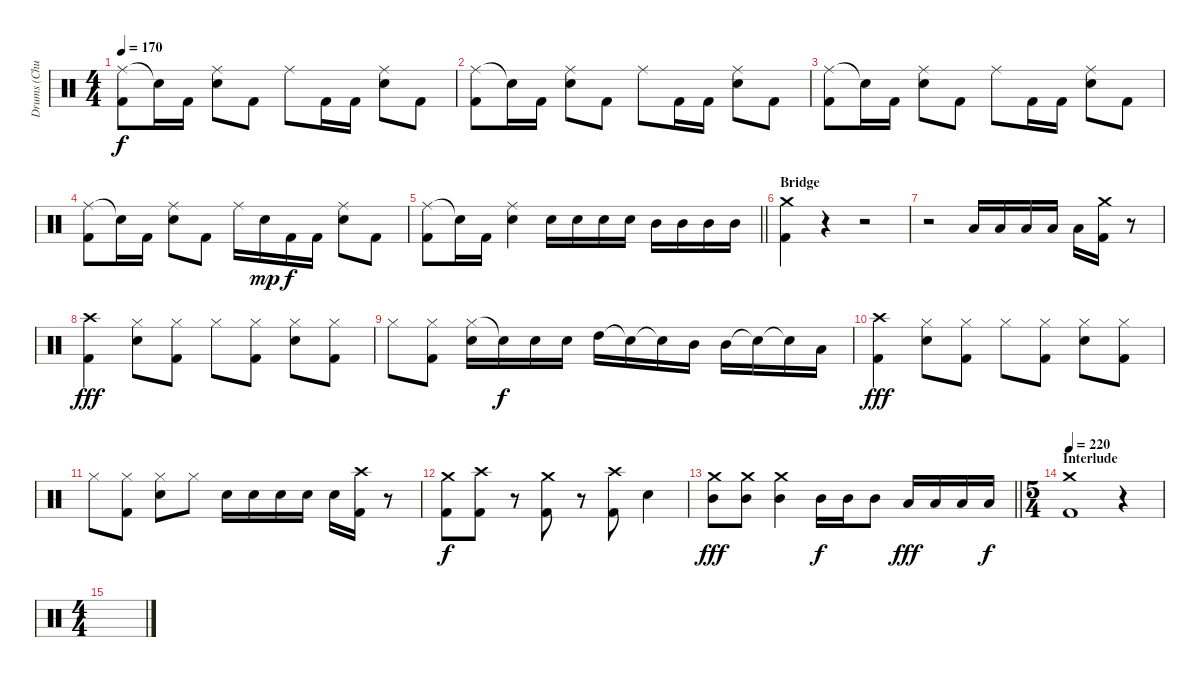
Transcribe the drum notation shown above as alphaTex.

\track ("Drums (Chuck Behler)" "Drums (Chu") {instrument percussion}
\staff {score}
\articulation defaults
\ts (4 4)
\tempo 170
\clef neutral
\ks c
("Ride (middle)" "Kick (hit) 2").8{dy f} "Snare (hit)"{t}.16 "Kick (hit) 2".16 ("Ride (middle)" "Snare (hit) 2").8 "Kick (hit) 2".8 "Ride (middle)".8 "Kick (hit) 2".16 "Kick (hit) 2".16 ("Ride (middle)" "Snare (hit) 2").8 "Kick (hit) 2".8 |
("Ride (middle)" "Kick (hit) 2").8 "Snare (hit)"{t}.16 "Kick (hit) 2".16 ("Ride (middle)" "Snare (hit) 2").8 "Kick (hit) 2".8 "Ride (middle)".8 "Kick (hit) 2".16 "Kick (hit) 2".16 ("Ride (middle)" "Snare (hit) 2").8 "Kick (hit) 2".8 |
("Ride (middle)" "Kick (hit) 2").8 "Snare (hit)"{t}.16 "Kick (hit) 2".16 ("Ride (middle)" "Snare (hit) 2").8 "Kick (hit) 2".8 "Ride (middle)".8 "Kick (hit) 2".16 "Kick (hit) 2".16 ("Ride (middle)" "Snare (hit) 2").8 "Kick (hit) 2".8 |
("Ride (middle)" "Kick (hit) 2").8 "Snare (hit)"{t}.16 "Kick (hit) 2".16 ("Ride (middle)" "Snare (hit) 2").8 "Kick (hit) 2".8 "Ride (middle)".16 "Snare (hit) 2".16{dy mp} "Kick (hit) 2".16{dy f} "Kick (hit) 2".16 ("Ride (middle)" "Snare (hit) 2").8 "Kick (hit) 2".8 |
\barLineRight lightlight
("Ride (middle)" "Kick (hit) 2").8 "Snare (hit)"{t}.16 "Kick (hit) 2".16 ("Ride (middle)" "Snare (hit) 2").4 "Snare (hit) 2".16 "Snare (hit) 2".16 "Snare (hit) 2".16 "Snare (hit) 2".16 "Mid Tom (hit)".16 "Mid Tom (hit)".16 "Mid Tom (hit)".16 "Mid Tom (hit)".16 |
\section ("" "Bridge")
("Crash medium (hit)" "Kick (hit) 2").4 r.4 r.2 |
r.2 "Low Tom (hit)".16 "Low Tom (hit)".16 "Low Tom (hit)".16 "Low Tom (hit)".16 "Low Tom (hit)".16 ("Crash medium (hit)" "Kick (hit) 2").16 r.8 |
("Crash high (hit)" "Kick (hit) 2").4{dy fff} ("Hi-Hat (closed)" "Snare (hit) 2").8 ("Hi-Hat (closed)" "Kick (hit) 2").8 "Hi-Hat (closed)".8 ("Hi-Hat (closed)" "Kick (hit) 2").8 ("Hi-Hat (closed)" "Snare (hit) 2").8 ("Hi-Hat (closed)" "Kick (hit) 2").8 |
"Hi-Hat (closed)".8 ("Hi-Hat (closed)" "Kick (hit) 2").8 ("Hi-Hat (closed)" "Snare (hit) 2").16 "Snare (hit)"{t}.16{dy f} "Snare (hit) 2".16 "Snare (hit) 2".16 "High Tom (hit)".16 "Snare (hit)"{t}.16 "Snare (hit)"{t}.16 "Mid Tom (hit)".16 "Mid Tom (hit)".16 "Snare (hit)"{t}.16 "Snare (hit)"{t}.16 "Low Tom (hit)".16 |
("Crash high (hit)" "Kick (hit) 2").4{dy fff} ("Hi-Hat (closed)" "Snare (hit) 2").8 ("Hi-Hat (closed)" "Kick (hit) 2").8 "Hi-Hat (closed)".8 ("Hi-Hat (closed)" "Kick (hit) 2").8 ("Hi-Hat (closed)" "Snare (hit) 2").8 ("Hi-Hat (closed)" "Kick (hit) 2").8 |
"Hi-Hat (closed)".8 ("Hi-Hat (closed)" "Kick (hit) 2").8 ("Hi-Hat (closed)" "Snare (hit) 2").8 "Hi-Hat (closed)".8 "Snare (hit) 2".16 "Snare (hit) 2".16 "Snare (hit) 2".16 "Snare (hit) 2".16 "Snare (hit) 2".16 ("Crash high (hit)" "Kick (hit) 2").16 r.8 |
("Crash medium (hit)" "Kick (hit) 2").8{dy f} ("Crash high (hit)" "Kick (hit) 2").8 r.8 ("Crash medium (hit)" "Kick (hit) 2").8 r.8 ("Crash high (hit)" "Kick (hit) 2").8 "Snare (hit) 2".4 |
\barLineRight lightlight
("Crash medium (hit)" "Mid Tom (hit)").8{dy fff} ("Crash medium (hit)" "Mid Tom (hit)").8 ("Crash medium (hit)" "Mid Tom (hit)").4 "Mid Tom (hit)".16{dy f} "Mid Tom (hit)".16 "Mid Tom (hit)".8 "Low Tom (hit)".16{dy fff} "Low Tom (hit)".16 "Low Tom (hit)".16 "Low Tom (hit)".16{dy f} |
\ts (5 4)
\section ("" "Interlude")
\tempo 220
("Crash medium (hit)" "Kick (hit) 2").1 r.4 |
\ts (4 4)
